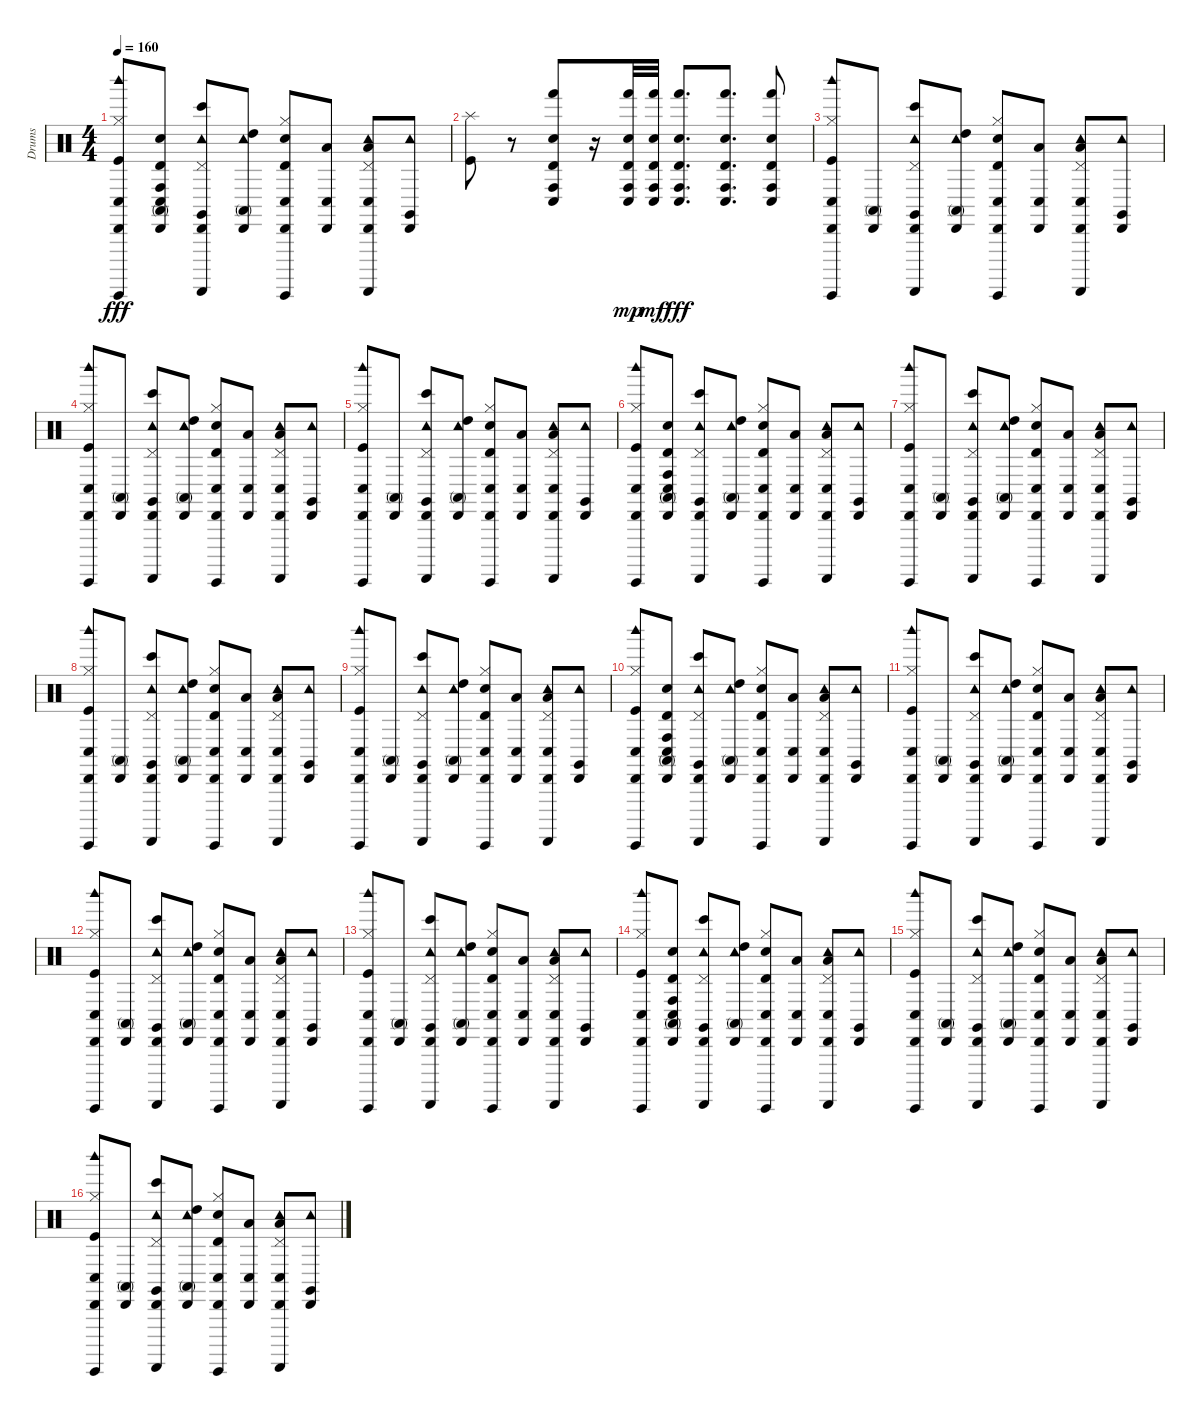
\track ("Drums" "Drums") {instrument percussion}
\staff {score}
\articulation defaults
\ts (4 4)
\tempo 160
\clef neutral
\ks c
("Kick (hit)" "Cabasa (hit)" "Hi-Hat (closed)" "Guiro (hit)" "Woodblock high (hit)" "Conga low (hit)").8{dy fff} ("Cabasa (hit)" "Conga high (mute)" "Electric Snare (hit)" "Timbale high (hit)" "Conga low (hit)" "Conga high (hit)").8 ("Tambourine (hit)" "Cabasa (hit)" "Pedal Hi-Hat (hit)" "Guiro (scrap-return)" "Claves (hit)" "Bongo High (hit)").8 ("Tambourine (hit)" "Cabasa (hit)" "High Tom (hit)" "Conga high (mute)").8 ("Electric Snare (hit)" "Cabasa (hit)" "Hi-Hat (closed)" "Guiro (hit)" "Timbale high (hit)" "Conga low (hit)").8 ("Cabasa (hit)" "Conga low (hit)" "Low Tom (hit)").8 ("Tambourine (hit)" "Cabasa (hit)" "Pedal Hi-Hat (hit)" "Guiro (scrap-return)" "Conga low (hit)" "Low Tom (hit)").8 ("Tambourine (hit)" "Cabasa (hit)" "Claves (hit)").8 |
("Kick (hit)" "Splash (hit)").8 r.8 ("Timbale high (hit)" "Conga low (hit)" "Conga high (hit)" "Hand (hit)" "Electric Snare (hit)").8 r.16 ("Timbale high (hit)" "Conga low (hit)" "Conga high (hit)" "Hand (hit)" "Electric Snare (hit)").32{dy mp} ("Timbale high (hit)" "Conga low (hit)" "Conga high (hit)" "Hand (hit)" "Electric Snare (hit)").32{dy mf} ("Timbale high (hit)" "Conga low (hit)" "Conga high (hit)" "Hand (hit)" "Electric Snare (hit)").8{d dy fff} ("Timbale high (hit)" "Conga low (hit)" "Conga high (hit)" "Hand (hit)" "Electric Snare (hit)").8{d} ("Timbale high (hit)" "Conga low (hit)" "Conga high (hit)" "Hand (hit)" "Electric Snare (hit)").8 |
("Kick (hit)" "Cabasa (hit)" "Hi-Hat (closed)" "Guiro (hit)" "Woodblock high (hit)" "Conga low (hit)").8 ("Cabasa (hit)" "Conga high (mute)").8 ("Tambourine (hit)" "Cabasa (hit)" "Pedal Hi-Hat (hit)" "Guiro (scrap-return)" "Claves (hit)" "Bongo High (hit)").8 ("Tambourine (hit)" "Cabasa (hit)" "High Tom (hit)" "Conga high (mute)").8 ("Electric Snare (hit)" "Cabasa (hit)" "Hi-Hat (closed)" "Guiro (hit)" "Timbale high (hit)" "Conga low (hit)").8 ("Cabasa (hit)" "Conga low (hit)" "Low Tom (hit)").8 ("Tambourine (hit)" "Cabasa (hit)" "Pedal Hi-Hat (hit)" "Guiro (scrap-return)" "Conga low (hit)" "Low Tom (hit)").8 ("Tambourine (hit)" "Cabasa (hit)" "Claves (hit)").8 |
("Kick (hit)" "Cabasa (hit)" "Hi-Hat (closed)" "Guiro (hit)" "Woodblock high (hit)" "Conga low (hit)").8 ("Cabasa (hit)" "Conga high (mute)").8 ("Tambourine (hit)" "Cabasa (hit)" "Pedal Hi-Hat (hit)" "Guiro (scrap-return)" "Claves (hit)" "Bongo High (hit)").8 ("Tambourine (hit)" "Cabasa (hit)" "High Tom (hit)" "Conga high (mute)").8 ("Electric Snare (hit)" "Cabasa (hit)" "Hi-Hat (closed)" "Guiro (hit)" "Timbale high (hit)" "Conga low (hit)").8 ("Cabasa (hit)" "Conga low (hit)" "Low Tom (hit)").8 ("Tambourine (hit)" "Cabasa (hit)" "Pedal Hi-Hat (hit)" "Guiro (scrap-return)" "Conga low (hit)" "Low Tom (hit)").8 ("Tambourine (hit)" "Cabasa (hit)" "Claves (hit)").8 |
("Kick (hit)" "Cabasa (hit)" "Hi-Hat (closed)" "Guiro (hit)" "Woodblock high (hit)" "Conga low (hit)").8 ("Cabasa (hit)" "Conga high (mute)").8 ("Tambourine (hit)" "Cabasa (hit)" "Pedal Hi-Hat (hit)" "Guiro (scrap-return)" "Claves (hit)" "Bongo High (hit)").8 ("Tambourine (hit)" "Cabasa (hit)" "High Tom (hit)" "Conga high (mute)").8 ("Electric Snare (hit)" "Cabasa (hit)" "Hi-Hat (closed)" "Guiro (hit)" "Timbale high (hit)" "Conga low (hit)").8 ("Cabasa (hit)" "Conga low (hit)" "Low Tom (hit)").8 ("Tambourine (hit)" "Cabasa (hit)" "Pedal Hi-Hat (hit)" "Guiro (scrap-return)" "Conga low (hit)" "Low Tom (hit)").8 ("Tambourine (hit)" "Cabasa (hit)" "Claves (hit)").8 |
("Kick (hit)" "Cabasa (hit)" "Hi-Hat (closed)" "Guiro (hit)" "Woodblock high (hit)" "Conga low (hit)").8 ("Cabasa (hit)" "Conga high (mute)" "Electric Snare (hit)" "Timbale high (hit)" "Conga low (hit)" "Conga high (hit)").8 ("Tambourine (hit)" "Cabasa (hit)" "Pedal Hi-Hat (hit)" "Guiro (scrap-return)" "Claves (hit)" "Bongo High (hit)").8 ("Tambourine (hit)" "Cabasa (hit)" "High Tom (hit)" "Conga high (mute)").8 ("Electric Snare (hit)" "Cabasa (hit)" "Hi-Hat (closed)" "Guiro (hit)" "Timbale high (hit)" "Conga low (hit)").8 ("Cabasa (hit)" "Conga low (hit)" "Low Tom (hit)").8 ("Tambourine (hit)" "Cabasa (hit)" "Pedal Hi-Hat (hit)" "Guiro (scrap-return)" "Conga low (hit)" "Low Tom (hit)").8 ("Tambourine (hit)" "Cabasa (hit)" "Claves (hit)").8 |
("Kick (hit)" "Cabasa (hit)" "Hi-Hat (closed)" "Guiro (hit)" "Woodblock high (hit)" "Conga low (hit)").8 ("Cabasa (hit)" "Conga high (mute)").8 ("Tambourine (hit)" "Cabasa (hit)" "Pedal Hi-Hat (hit)" "Guiro (scrap-return)" "Claves (hit)" "Bongo High (hit)").8 ("Tambourine (hit)" "Cabasa (hit)" "High Tom (hit)" "Conga high (mute)").8 ("Electric Snare (hit)" "Cabasa (hit)" "Hi-Hat (closed)" "Guiro (hit)" "Timbale high (hit)" "Conga low (hit)").8 ("Cabasa (hit)" "Conga low (hit)" "Low Tom (hit)").8 ("Tambourine (hit)" "Cabasa (hit)" "Pedal Hi-Hat (hit)" "Guiro (scrap-return)" "Conga low (hit)" "Low Tom (hit)").8 ("Tambourine (hit)" "Cabasa (hit)" "Claves (hit)").8 |
("Kick (hit)" "Cabasa (hit)" "Hi-Hat (closed)" "Guiro (hit)" "Woodblock high (hit)" "Conga low (hit)").8 ("Cabasa (hit)" "Conga high (mute)").8 ("Tambourine (hit)" "Cabasa (hit)" "Pedal Hi-Hat (hit)" "Guiro (scrap-return)" "Claves (hit)" "Bongo High (hit)").8 ("Tambourine (hit)" "Cabasa (hit)" "High Tom (hit)" "Conga high (mute)").8 ("Electric Snare (hit)" "Cabasa (hit)" "Hi-Hat (closed)" "Guiro (hit)" "Timbale high (hit)" "Conga low (hit)").8 ("Cabasa (hit)" "Conga low (hit)" "Low Tom (hit)").8 ("Tambourine (hit)" "Cabasa (hit)" "Pedal Hi-Hat (hit)" "Guiro (scrap-return)" "Conga low (hit)" "Low Tom (hit)").8 ("Tambourine (hit)" "Cabasa (hit)" "Claves (hit)").8 |
("Kick (hit)" "Cabasa (hit)" "Hi-Hat (closed)" "Guiro (hit)" "Woodblock high (hit)" "Conga low (hit)").8 ("Cabasa (hit)" "Conga high (mute)").8 ("Tambourine (hit)" "Cabasa (hit)" "Pedal Hi-Hat (hit)" "Guiro (scrap-return)" "Claves (hit)" "Bongo High (hit)").8 ("Tambourine (hit)" "Cabasa (hit)" "High Tom (hit)" "Conga high (mute)").8 ("Electric Snare (hit)" "Cabasa (hit)" "Hi-Hat (closed)" "Guiro (hit)" "Timbale high (hit)" "Conga low (hit)").8 ("Cabasa (hit)" "Conga low (hit)" "Low Tom (hit)").8 ("Tambourine (hit)" "Cabasa (hit)" "Pedal Hi-Hat (hit)" "Guiro (scrap-return)" "Conga low (hit)" "Low Tom (hit)").8 ("Tambourine (hit)" "Cabasa (hit)" "Claves (hit)").8 |
("Kick (hit)" "Cabasa (hit)" "Hi-Hat (closed)" "Guiro (hit)" "Woodblock high (hit)" "Conga low (hit)").8 ("Cabasa (hit)" "Conga high (mute)" "Electric Snare (hit)" "Timbale high (hit)" "Conga low (hit)" "Conga high (hit)").8 ("Tambourine (hit)" "Cabasa (hit)" "Pedal Hi-Hat (hit)" "Guiro (scrap-return)" "Claves (hit)" "Bongo High (hit)").8 ("Tambourine (hit)" "Cabasa (hit)" "High Tom (hit)" "Conga high (mute)").8 ("Electric Snare (hit)" "Cabasa (hit)" "Hi-Hat (closed)" "Guiro (hit)" "Timbale high (hit)" "Conga low (hit)").8 ("Cabasa (hit)" "Conga low (hit)" "Low Tom (hit)").8 ("Tambourine (hit)" "Cabasa (hit)" "Pedal Hi-Hat (hit)" "Guiro (scrap-return)" "Conga low (hit)" "Low Tom (hit)").8 ("Tambourine (hit)" "Cabasa (hit)" "Claves (hit)").8 |
("Kick (hit)" "Cabasa (hit)" "Hi-Hat (closed)" "Guiro (hit)" "Woodblock high (hit)" "Conga low (hit)").8 ("Cabasa (hit)" "Conga high (mute)").8 ("Tambourine (hit)" "Cabasa (hit)" "Pedal Hi-Hat (hit)" "Guiro (scrap-return)" "Claves (hit)" "Bongo High (hit)").8 ("Tambourine (hit)" "Cabasa (hit)" "High Tom (hit)" "Conga high (mute)").8 ("Electric Snare (hit)" "Cabasa (hit)" "Hi-Hat (closed)" "Guiro (hit)" "Timbale high (hit)" "Conga low (hit)").8 ("Cabasa (hit)" "Conga low (hit)" "Low Tom (hit)").8 ("Tambourine (hit)" "Cabasa (hit)" "Pedal Hi-Hat (hit)" "Guiro (scrap-return)" "Conga low (hit)" "Low Tom (hit)").8 ("Tambourine (hit)" "Cabasa (hit)" "Claves (hit)").8 |
("Kick (hit)" "Cabasa (hit)" "Hi-Hat (closed)" "Guiro (hit)" "Woodblock high (hit)" "Conga low (hit)").8 ("Cabasa (hit)" "Conga high (mute)").8 ("Tambourine (hit)" "Cabasa (hit)" "Pedal Hi-Hat (hit)" "Guiro (scrap-return)" "Claves (hit)" "Bongo High (hit)").8 ("Tambourine (hit)" "Cabasa (hit)" "High Tom (hit)" "Conga high (mute)").8 ("Electric Snare (hit)" "Cabasa (hit)" "Hi-Hat (closed)" "Guiro (hit)" "Timbale high (hit)" "Conga low (hit)").8 ("Cabasa (hit)" "Conga low (hit)" "Low Tom (hit)").8 ("Tambourine (hit)" "Cabasa (hit)" "Pedal Hi-Hat (hit)" "Guiro (scrap-return)" "Conga low (hit)" "Low Tom (hit)").8 ("Tambourine (hit)" "Cabasa (hit)" "Claves (hit)").8 |
("Kick (hit)" "Cabasa (hit)" "Hi-Hat (closed)" "Guiro (hit)" "Woodblock high (hit)" "Conga low (hit)").8 ("Cabasa (hit)" "Conga high (mute)").8 ("Tambourine (hit)" "Cabasa (hit)" "Pedal Hi-Hat (hit)" "Guiro (scrap-return)" "Claves (hit)" "Bongo High (hit)").8 ("Tambourine (hit)" "Cabasa (hit)" "High Tom (hit)" "Conga high (mute)").8 ("Electric Snare (hit)" "Cabasa (hit)" "Hi-Hat (closed)" "Guiro (hit)" "Timbale high (hit)" "Conga low (hit)").8 ("Cabasa (hit)" "Conga low (hit)" "Low Tom (hit)").8 ("Tambourine (hit)" "Cabasa (hit)" "Pedal Hi-Hat (hit)" "Guiro (scrap-return)" "Conga low (hit)" "Low Tom (hit)").8 ("Tambourine (hit)" "Cabasa (hit)" "Claves (hit)").8 |
("Kick (hit)" "Cabasa (hit)" "Hi-Hat (closed)" "Guiro (hit)" "Woodblock high (hit)" "Conga low (hit)").8 ("Cabasa (hit)" "Conga high (mute)" "Electric Snare (hit)" "Timbale high (hit)" "Conga low (hit)" "Conga high (hit)").8 ("Tambourine (hit)" "Cabasa (hit)" "Pedal Hi-Hat (hit)" "Guiro (scrap-return)" "Claves (hit)" "Bongo High (hit)").8 ("Tambourine (hit)" "Cabasa (hit)" "High Tom (hit)" "Conga high (mute)").8 ("Electric Snare (hit)" "Cabasa (hit)" "Hi-Hat (closed)" "Guiro (hit)" "Timbale high (hit)" "Conga low (hit)").8 ("Cabasa (hit)" "Conga low (hit)" "Low Tom (hit)").8 ("Tambourine (hit)" "Cabasa (hit)" "Pedal Hi-Hat (hit)" "Guiro (scrap-return)" "Conga low (hit)" "Low Tom (hit)").8 ("Tambourine (hit)" "Cabasa (hit)" "Claves (hit)").8 |
("Kick (hit)" "Cabasa (hit)" "Hi-Hat (closed)" "Guiro (hit)" "Woodblock high (hit)" "Conga low (hit)").8 ("Cabasa (hit)" "Conga high (mute)").8 ("Tambourine (hit)" "Cabasa (hit)" "Pedal Hi-Hat (hit)" "Guiro (scrap-return)" "Claves (hit)" "Bongo High (hit)").8 ("Tambourine (hit)" "Cabasa (hit)" "High Tom (hit)" "Conga high (mute)").8 ("Electric Snare (hit)" "Cabasa (hit)" "Hi-Hat (closed)" "Guiro (hit)" "Timbale high (hit)" "Conga low (hit)").8 ("Cabasa (hit)" "Conga low (hit)" "Low Tom (hit)").8 ("Tambourine (hit)" "Cabasa (hit)" "Pedal Hi-Hat (hit)" "Guiro (scrap-return)" "Conga low (hit)" "Low Tom (hit)").8 ("Tambourine (hit)" "Cabasa (hit)" "Claves (hit)").8 |
("Kick (hit)" "Cabasa (hit)" "Hi-Hat (closed)" "Guiro (hit)" "Woodblock high (hit)" "Conga low (hit)").8 ("Cabasa (hit)" "Conga high (mute)").8 ("Tambourine (hit)" "Cabasa (hit)" "Pedal Hi-Hat (hit)" "Guiro (scrap-return)" "Claves (hit)" "Bongo High (hit)").8 ("Tambourine (hit)" "Cabasa (hit)" "High Tom (hit)" "Conga high (mute)").8 ("Electric Snare (hit)" "Cabasa (hit)" "Hi-Hat (closed)" "Guiro (hit)" "Timbale high (hit)" "Conga low (hit)").8 ("Cabasa (hit)" "Conga low (hit)" "Low Tom (hit)").8 ("Tambourine (hit)" "Cabasa (hit)" "Pedal Hi-Hat (hit)" "Guiro (scrap-return)" "Conga low (hit)" "Low Tom (hit)").8 ("Tambourine (hit)" "Cabasa (hit)" "Claves (hit)").8
